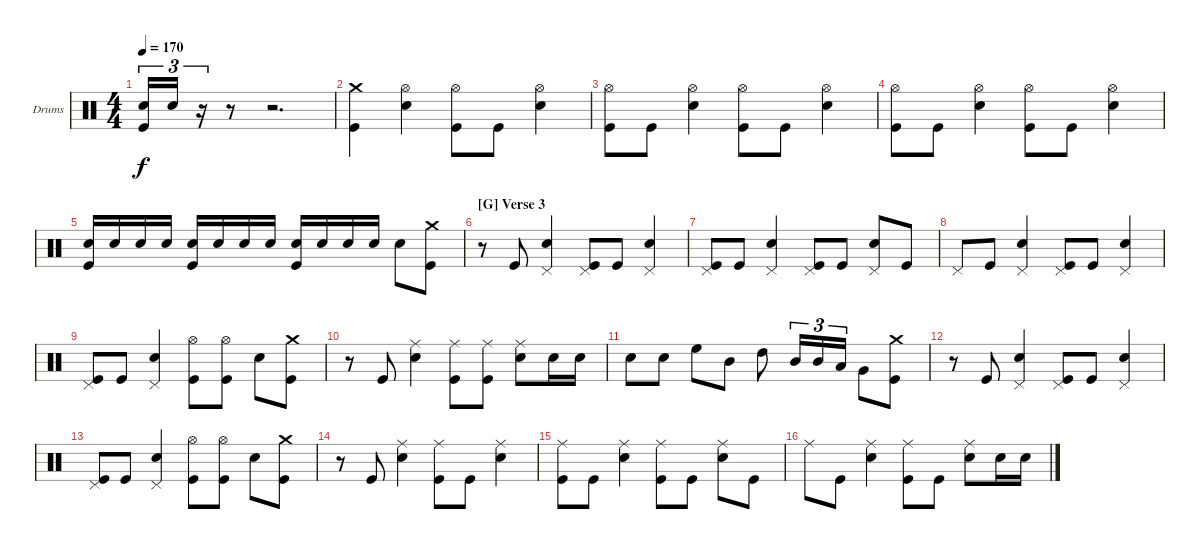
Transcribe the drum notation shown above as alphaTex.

\bracketExtendMode groupsimilarinstruments
\firstSystemTrackNameOrientation horizontal
\otherSystemsTrackNameOrientation horizontal
\track ("Vinny Appice" "Drums") {instrument percussion}
\staff {score}
\articulation defaults
\ts (4 4)
\tempo 170
\clef neutral
\ks c
("Snare (hit) 2" "Kick (hit)").16{tu (3 2) dy f} "Snare (hit) 2".16{tu (3 2)} r.16{tu (3 2)} r.8 r.2{d} |
("Crash medium (hit)" "Kick (hit)").4 ("Hi-Hat (open)" "Snare (hit) 2").4 ("Hi-Hat (open)" "Kick (hit)").8 "Kick (hit)".8 ("Hi-Hat (open)" "Snare (hit) 2").4 |
("Hi-Hat (open)" "Kick (hit)").8 "Kick (hit)".8 ("Hi-Hat (open)" "Snare (hit) 2").4 ("Hi-Hat (open)" "Kick (hit)").8 "Kick (hit)".8 ("Hi-Hat (open)" "Snare (hit) 2").4 |
("Hi-Hat (open)" "Kick (hit)").8 "Kick (hit)".8 ("Hi-Hat (open)" "Snare (hit) 2").4 ("Hi-Hat (open)" "Kick (hit)").8 "Kick (hit)".8 ("Hi-Hat (open)" "Snare (hit) 2").4 |
("Snare (hit) 2" "Kick (hit)").16 "Snare (hit) 2".16 "Snare (hit) 2".16 "Snare (hit) 2".16 ("Snare (hit) 2" "Kick (hit)").16 "Snare (hit) 2".16 "Snare (hit) 2".16 "Snare (hit) 2".16 ("Snare (hit) 2" "Kick (hit)").16 "Snare (hit) 2".16 "Snare (hit) 2".16 "Snare (hit) 2".16 "Snare (hit) 2".8 ("Crash medium (hit)" "Kick (hit)").8 |
\section ("G" "Verse 3")
r.8 "Kick (hit)".8 ("Pedal Hi-Hat (hit)" "Snare (hit) 2").4 ("Pedal Hi-Hat (hit)" "Kick (hit)").8 "Kick (hit)".8 ("Pedal Hi-Hat (hit)" "Snare (hit) 2").4 |
("Pedal Hi-Hat (hit)" "Kick (hit)").8 "Kick (hit)".8 ("Pedal Hi-Hat (hit)" "Snare (hit) 2").4 ("Pedal Hi-Hat (hit)" "Kick (hit)").8 "Kick (hit)".8 ("Pedal Hi-Hat (hit)" "Snare (hit) 2").8 "Kick (hit)".8 |
"Pedal Hi-Hat (hit)".8 "Kick (hit)".8 ("Pedal Hi-Hat (hit)" "Snare (hit) 2").4 ("Pedal Hi-Hat (hit)" "Kick (hit)").8 "Kick (hit)".8 ("Pedal Hi-Hat (hit)" "Snare (hit) 2").4 |
("Pedal Hi-Hat (hit)" "Kick (hit)").8 "Kick (hit)".8 ("Pedal Hi-Hat (hit)" "Snare (hit) 2").4 ("Hi-Hat (open)" "Kick (hit)").8 ("Hi-Hat (open)" "Kick (hit)").8 "Snare (hit) 2".8 ("Crash medium (hit)" "Kick (hit)").8 |
r.8 "Kick (hit)".8 ("Ride (middle)" "Snare (hit) 2").4 ("Ride (middle)" "Kick (hit)").8 ("Ride (middle)" "Kick (hit)").8 ("Snare (hit) 2" "Ride (middle)").8 "Snare (hit) 2".16 "Snare (hit) 2".16 |
"Snare (hit) 2".8 "Snare (hit) 2".8 "High Floor Tom (hit)".8 "Mid Tom (hit)".8 "High Tom (hit)".8 "Mid Tom (hit)".16{tu (3 2)} "Mid Tom (hit)".16{tu (3 2)} "Low Tom (hit)".16{tu (3 2)} "Very Low Tom (hit)".8 ("Crash medium (hit)" "Kick (hit)").8 |
r.8 "Kick (hit)".8 ("Pedal Hi-Hat (hit)" "Snare (hit) 2").4 ("Pedal Hi-Hat (hit)" "Kick (hit)").8 "Kick (hit)".8 ("Pedal Hi-Hat (hit)" "Snare (hit) 2").4 |
("Pedal Hi-Hat (hit)" "Kick (hit)").8 "Kick (hit)".8 ("Pedal Hi-Hat (hit)" "Snare (hit) 2").4 ("Hi-Hat (open)" "Kick (hit)").8 ("Hi-Hat (open)" "Kick (hit)").8 "Snare (hit) 2".8 ("Kick (hit)" "Crash medium (hit)").8 |
r.8 "Kick (hit)".8 ("Ride (middle)" "Snare (hit) 2").4 ("Ride (middle)" "Kick (hit)").8 "Kick (hit)".8 ("Ride (middle)" "Snare (hit) 2").4 |
("Ride (middle)" "Kick (hit)").8 "Kick (hit)".8 ("Ride (middle)" "Snare (hit) 2").4 ("Ride (middle)" "Kick (hit)").8 "Kick (hit)".8 ("Ride (middle)" "Snare (hit) 2").8 "Kick (hit)".8 |
"Ride (middle)".8 "Kick (hit)".8 ("Ride (middle)" "Snare (hit) 2").4 ("Ride (middle)" "Kick (hit)").8 "Kick (hit)".8 ("Ride (middle)" "Snare (hit) 2").8 "Snare (hit) 2".16 "Snare (hit) 2".16
